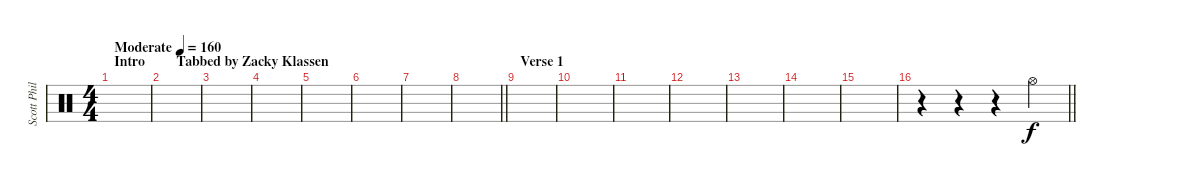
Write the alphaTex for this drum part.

\track ("Scott Phillips [Drums]" "Scott Phil") {instrument percussion}
\staff {score}
\articulation defaults
\ts (4 4)
\section ("" "Intro         Tabbed by Zacky Klassen")
\tempo (160 "Moderate")
\clef neutral
\ks c
|
|
|
|
|
|
|
\barLineRight lightlight
|
\section ("" "Verse 1")
|
|
|
|
|
|
|
\barLineRight lightlight
r.4 r.4 r.4 "Hi-Hat (open)".4
